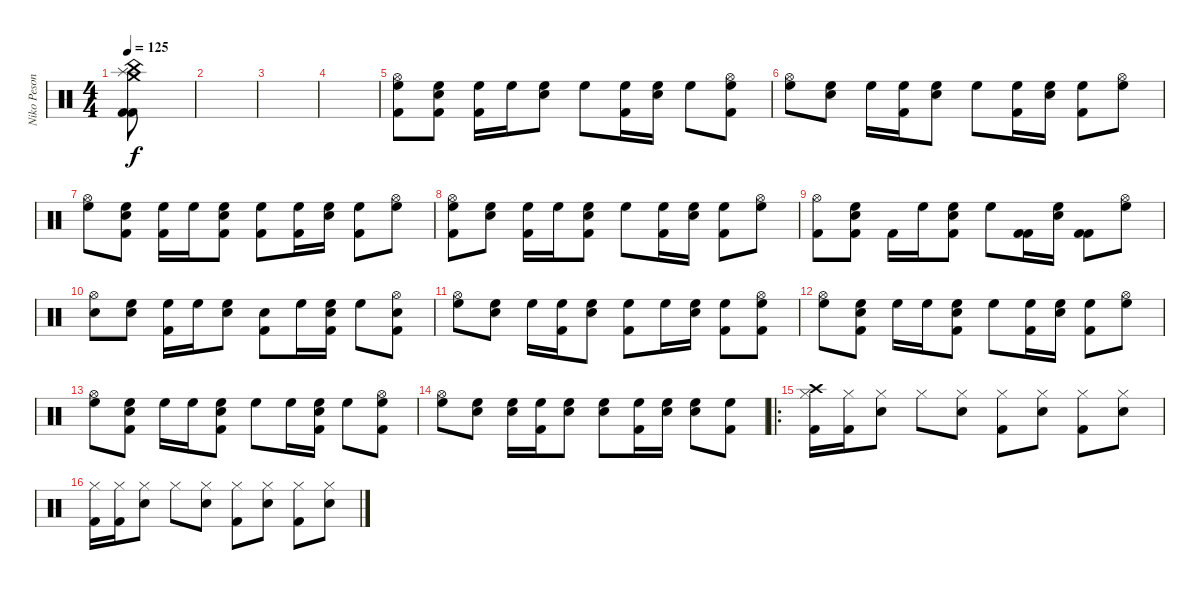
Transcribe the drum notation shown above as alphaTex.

\track ("Niko Pesonen" "Niko Peson") {instrument percussion}
\staff {score}
\articulation defaults
\ts (4 4)
\tempo 125
\clef neutral
\ks c
("Crash medium (hit)" "Splash (hit)" "China (hit)" "Kick (hit) 2" "Kick (hit) 2").8{dy f} |
|
|
|
("Hi-Hat (open)" "High Floor Tom (hit)" "Kick (hit) 2").8 ("Snare (hit) 2" "High Floor Tom (hit)" "Kick (hit) 2").8 ("High Floor Tom (hit)" "Kick (hit) 2").16 "High Floor Tom (hit)".16 ("Snare (hit) 2" "High Floor Tom (hit)").8 "High Floor Tom (hit)".8 ("High Floor Tom (hit)" "Kick (hit) 2").16 ("Snare (hit) 2" "High Floor Tom (hit)").16 "High Floor Tom (hit)".8 ("Hi-Hat (open)" "High Floor Tom (hit)" "Kick (hit) 2").8 |
("Hi-Hat (open)" "High Floor Tom (hit)").8 ("Snare (hit) 2" "High Floor Tom (hit)").8 "High Floor Tom (hit)".16 ("High Floor Tom (hit)" "Kick (hit) 2").16 ("Snare (hit) 2" "High Floor Tom (hit)").8 "High Floor Tom (hit)".8 ("High Floor Tom (hit)" "Kick (hit) 2").16 ("Snare (hit) 2" "High Floor Tom (hit)").16 ("High Floor Tom (hit)" "Kick (hit) 2").8 ("Hi-Hat (open)" "High Floor Tom (hit)").8 |
("Hi-Hat (open)" "High Floor Tom (hit)").8 ("Snare (hit) 2" "High Floor Tom (hit)" "Kick (hit) 2").8 ("High Floor Tom (hit)" "Kick (hit) 2").16 "High Floor Tom (hit)".16 ("Snare (hit) 2" "High Floor Tom (hit)" "Kick (hit) 2").8 ("High Floor Tom (hit)" "Kick (hit) 2").8 ("High Floor Tom (hit)" "Kick (hit) 2").16 ("Snare (hit) 2" "High Floor Tom (hit)").16 ("High Floor Tom (hit)" "Kick (hit) 2").8 ("Hi-Hat (open)" "High Floor Tom (hit)").8 |
("Hi-Hat (open)" "High Floor Tom (hit)" "Kick (hit) 2").8 ("Snare (hit) 2" "High Floor Tom (hit)").8 ("High Floor Tom (hit)" "Kick (hit) 2").16 "High Floor Tom (hit)".16 ("Snare (hit) 2" "High Floor Tom (hit)" "Kick (hit) 2").8 "High Floor Tom (hit)".8 ("High Floor Tom (hit)" "Kick (hit) 2").16 ("Snare (hit) 2" "High Floor Tom (hit)").16 ("High Floor Tom (hit)" "Kick (hit) 2").8 ("Hi-Hat (open)" "High Floor Tom (hit)").8 |
("Hi-Hat (open)" "Kick (hit) 2").8 ("Snare (hit) 2" "High Floor Tom (hit)" "Kick (hit) 2").8 "Kick (hit) 2".16 "High Floor Tom (hit)".16 ("Snare (hit) 2" "High Floor Tom (hit)" "Kick (hit) 2").8 "High Floor Tom (hit)".8 ("Kick (hit) 2" "Kick (hit) 2").16 ("Snare (hit) 2" "High Floor Tom (hit)").16 ("Kick (hit) 2" "Kick (hit) 2").8 ("Hi-Hat (open)" "High Floor Tom (hit)").8 |
("Hi-Hat (open)" "Snare (hit) 2").8 ("Snare (hit) 2" "High Floor Tom (hit)").8 ("High Floor Tom (hit)" "Kick (hit) 2").16 "High Floor Tom (hit)".16 ("Snare (hit) 2" "High Floor Tom (hit)").8 ("Snare (hit) 2" "Kick (hit) 2").8 "High Floor Tom (hit)".16 ("Snare (hit) 2" "High Floor Tom (hit)" "Kick (hit) 2").16 "High Floor Tom (hit)".8 ("Hi-Hat (open)" "Snare (hit) 2" "Kick (hit) 2").8 |
("Hi-Hat (open)" "High Floor Tom (hit)").8 ("Snare (hit) 2" "High Floor Tom (hit)").8 "High Floor Tom (hit)".16 ("High Floor Tom (hit)" "Kick (hit) 2").16 ("Snare (hit) 2" "High Floor Tom (hit)").8 ("High Floor Tom (hit)" "Kick (hit) 2").8 "High Floor Tom (hit)".16 ("Snare (hit) 2" "High Floor Tom (hit)").16 ("High Floor Tom (hit)" "Kick (hit) 2").8 ("Hi-Hat (open)" "High Floor Tom (hit)" "Kick (hit) 2").8 |
("Hi-Hat (open)" "High Floor Tom (hit)").8 ("Snare (hit) 2" "High Floor Tom (hit)" "Kick (hit) 2").8 "High Floor Tom (hit)".16 "High Floor Tom (hit)".16 ("Snare (hit) 2" "High Floor Tom (hit)" "Kick (hit) 2").8 "High Floor Tom (hit)".8 ("High Floor Tom (hit)" "Kick (hit) 2").16 ("Snare (hit) 2" "High Floor Tom (hit)").16 ("High Floor Tom (hit)" "Kick (hit) 2").8 ("Hi-Hat (open)" "High Floor Tom (hit)").8 |
("Hi-Hat (open)" "High Floor Tom (hit)").8 ("Snare (hit) 2" "High Floor Tom (hit)" "Kick (hit) 2").8 "High Floor Tom (hit)".16 "High Floor Tom (hit)".16 ("Snare (hit) 2" "High Floor Tom (hit)" "Kick (hit) 2").8 "High Floor Tom (hit)".8 "High Floor Tom (hit)".16 ("Snare (hit) 2" "High Floor Tom (hit)" "Kick (hit) 2").16 "High Floor Tom (hit)".8 ("Hi-Hat (open)" "High Floor Tom (hit)" "Kick (hit) 2").8 |
("Hi-Hat (open)" "High Floor Tom (hit)").8 ("Snare (hit) 2" "High Floor Tom (hit)").8 ("Snare (hit) 2" "High Floor Tom (hit)").16 ("High Floor Tom (hit)" "Kick (hit) 2").16 ("Snare (hit) 2" "High Floor Tom (hit)").8 ("Snare (hit) 2" "High Floor Tom (hit)").8 ("High Floor Tom (hit)" "Kick (hit) 2").16 ("Snare (hit) 2" "High Floor Tom (hit)").16 ("Snare (hit) 2" "High Floor Tom (hit)").8 ("High Floor Tom (hit)" "Kick (hit) 2").8 |
\ro
("Crash high (hit)" "Hi-Hat (closed)" "Kick (hit) 2").16 ("Hi-Hat (closed)" "Kick (hit) 2").16 ("Hi-Hat (closed)" "Snare (hit) 2").8 "Hi-Hat (closed)".8 ("Hi-Hat (closed)" "Snare (hit) 2").8 ("Hi-Hat (closed)" "Kick (hit) 2").8 ("Hi-Hat (closed)" "Snare (hit) 2").8 ("Hi-Hat (closed)" "Kick (hit) 2").8 ("Hi-Hat (closed)" "Snare (hit) 2").8 |
("Hi-Hat (closed)" "Kick (hit) 2").16 ("Hi-Hat (closed)" "Kick (hit) 2").16 ("Hi-Hat (closed)" "Snare (hit) 2").8 "Hi-Hat (closed)".8 ("Hi-Hat (closed)" "Snare (hit) 2").8 ("Hi-Hat (closed)" "Kick (hit) 2").8 ("Hi-Hat (closed)" "Snare (hit) 2").8 ("Hi-Hat (closed)" "Kick (hit) 2").8 ("Hi-Hat (closed)" "Snare (hit) 2").8
